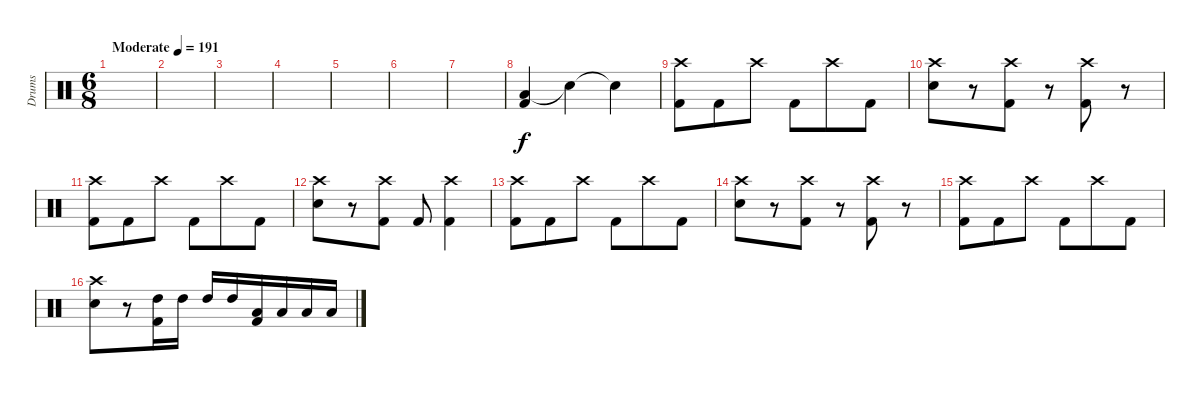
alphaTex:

\track ("Drums" "Drums") {instrument percussion}
\staff {score}
\articulation defaults
\ts (6 8)
\tempo (191 "Moderate")
\clef neutral
\ks c
|
|
|
|
|
|
|
("Low Floor Tom (hit)" "Kick (hit) 2").4{volume 16 balance 11} "Snare (hit)"{t}.4{dy f} "Snare (hit)"{t}.4 |
("Crash high (hit)" "Kick (hit) 2").8{volume 13 balance 8} "Kick (hit) 2".8 "Crash high (hit)".8 "Kick (hit) 2".8 "Crash high (hit)".8 "Kick (hit) 2".8 |
("Crash high (hit)" "Snare (hit) 2").8 r.8 ("Crash high (hit)" "Kick (hit) 2").8 r.8 ("Crash high (hit)" "Kick (hit) 2").8 r.8 |
("Crash high (hit)" "Kick (hit) 2").8 "Kick (hit) 2".8 "Crash high (hit)".8 "Kick (hit) 2".8 "Crash high (hit)".8 "Kick (hit) 2".8 |
("Crash high (hit)" "Snare (hit) 2").8 r.8 ("Crash high (hit)" "Kick (hit) 2").8 "Kick (hit) 2".8 ("Crash high (hit)" "Kick (hit) 2").4 |
("Crash high (hit)" "Kick (hit) 2").8 "Kick (hit) 2".8 "Crash high (hit)".8 "Kick (hit) 2".8 "Crash high (hit)".8 "Kick (hit) 2".8 |
("Crash high (hit)" "Snare (hit) 2").8 r.8 ("Crash high (hit)" "Kick (hit) 2").8 r.8 ("Crash high (hit)" "Kick (hit) 2").8 r.8 |
("Crash high (hit)" "Kick (hit) 2").8 "Kick (hit) 2".8 "Crash high (hit)".8 "Kick (hit) 2".8 "Crash high (hit)".8 "Kick (hit) 2".8 |
("Crash high (hit)" "Snare (hit) 2").8 r.8 ("High Tom (hit)" "Kick (hit) 2").16 "High Tom (hit)".16 "High Tom (hit)".16 "High Tom (hit)".16 ("Low Tom (hit)" "Kick (hit) 2").16 "Low Tom (hit)".16 "Low Tom (hit)".16 "Low Tom (hit)".16
